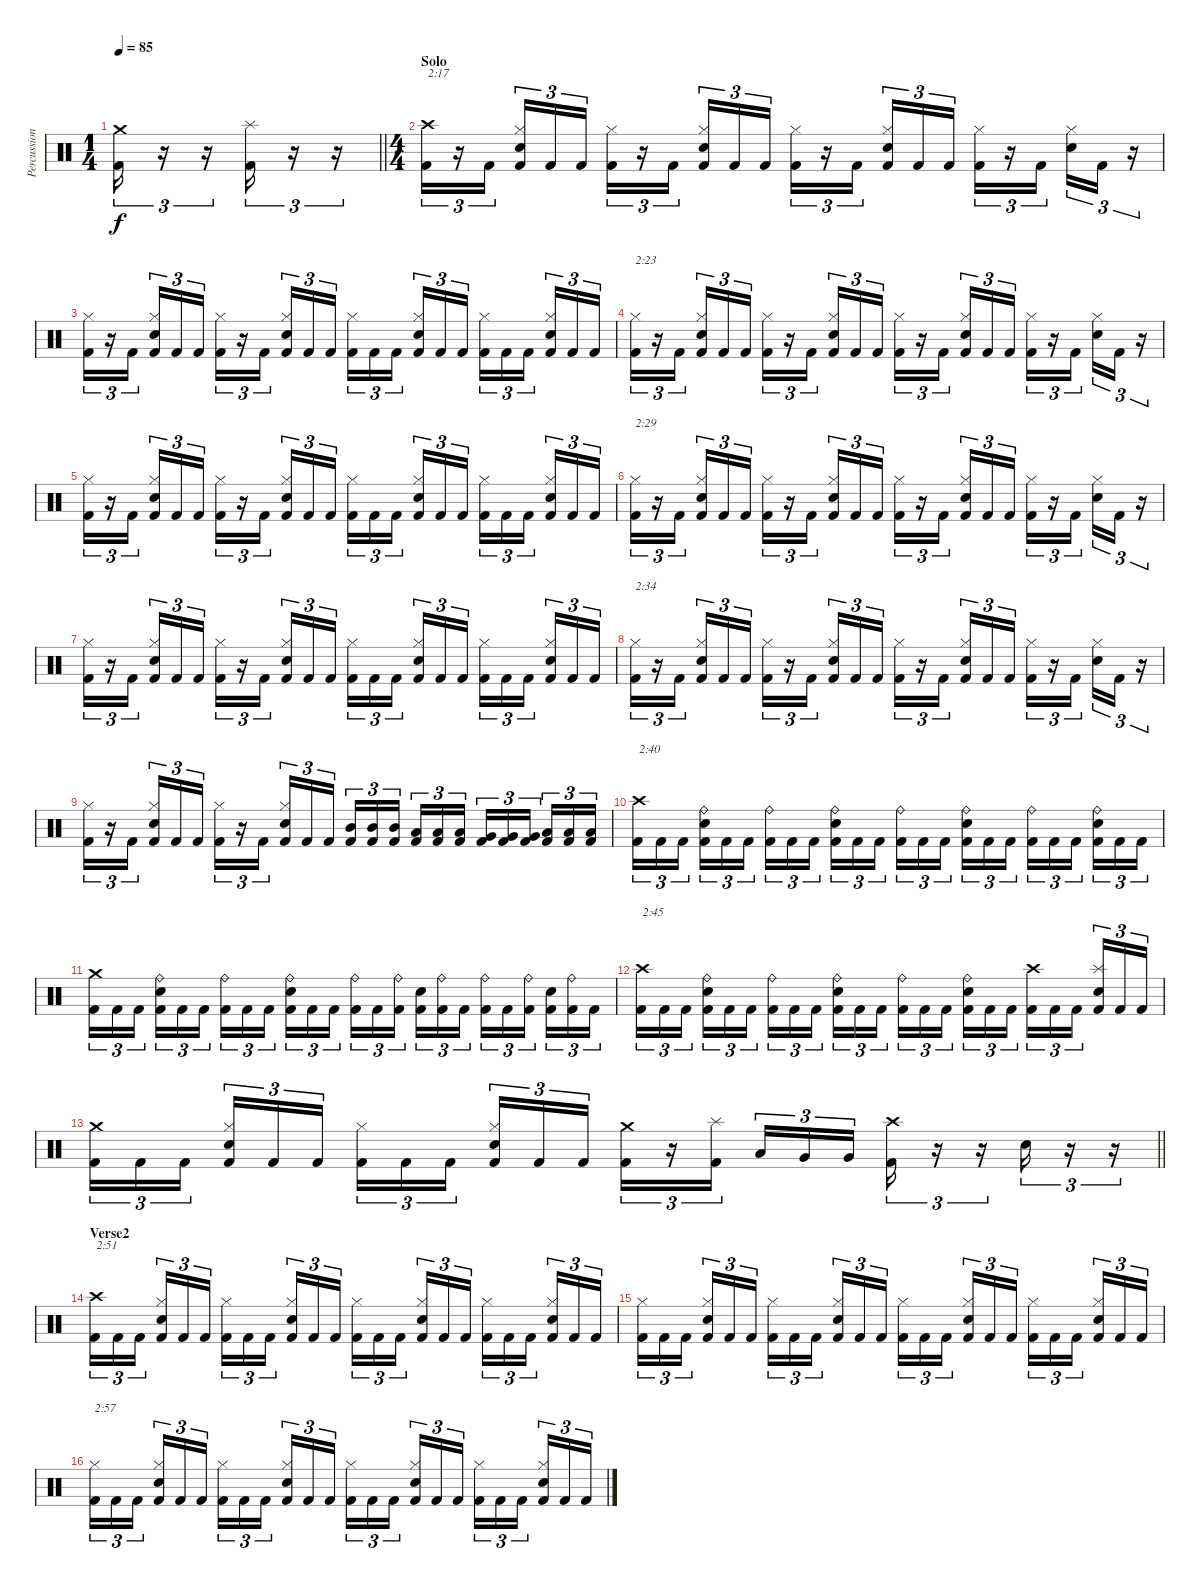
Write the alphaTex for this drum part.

\track ("Percussion" "Percussion") {instrument percussion}
\staff {score}
\articulation defaults
\ts (1 4)
\tempo 85
\clef neutral
\barLineRight lightlight
\ks c
("Crash medium (hit)" "Kick (hit) 2").16{tu (3 2) dy f} r.16{tu (3 2)} r.16{tu (3 2)} ("Splash (hit)" "Kick (hit) 2").16{tu (3 2)} r.16{tu (3 2)} r.16{tu (3 2)} |
\ts (4 4)
\section ("" "Solo")
("Crash high (hit)" "Kick (hit) 2").16{tu (3 2) txt "2:17"} r.16{tu (3 2)} "Kick (hit) 2".16{tu (3 2)} ("Hi-Hat (closed)" "Electric Snare (hit)" "Kick (hit) 2").16{tu (3 2)} "Kick (hit) 2".16{tu (3 2)} "Kick (hit) 2".16{tu (3 2)} ("Hi-Hat (closed)" "Kick (hit) 2").16{tu (3 2)} r.16{tu (3 2)} "Kick (hit) 2".16{tu (3 2)} ("Hi-Hat (closed)" "Electric Snare (hit)" "Kick (hit) 2").16{tu (3 2)} "Kick (hit) 2".16{tu (3 2)} "Kick (hit) 2".16{tu (3 2)} ("Hi-Hat (closed)" "Kick (hit) 2").16{tu (3 2)} r.16{tu (3 2)} "Kick (hit) 2".16{tu (3 2)} ("Hi-Hat (closed)" "Electric Snare (hit)" "Kick (hit) 2").16{tu (3 2)} "Kick (hit) 2".16{tu (3 2)} "Kick (hit) 2".16{tu (3 2)} ("Hi-Hat (closed)" "Kick (hit) 2").16{tu (3 2)} r.16{tu (3 2)} "Kick (hit) 2".16{tu (3 2)} ("Hi-Hat (closed)" "Electric Snare (hit)").16{tu (3 2)} "Kick (hit) 2".16{tu (3 2)} r.16{tu (3 2)} |
("Hi-Hat (closed)" "Kick (hit) 2").16{tu (3 2)} r.16{tu (3 2)} "Kick (hit) 2".16{tu (3 2)} ("Hi-Hat (closed)" "Electric Snare (hit)" "Kick (hit) 2").16{tu (3 2)} "Kick (hit) 2".16{tu (3 2)} "Kick (hit) 2".16{tu (3 2)} ("Hi-Hat (closed)" "Kick (hit) 2").16{tu (3 2)} r.16{tu (3 2)} "Kick (hit) 2".16{tu (3 2)} ("Hi-Hat (closed)" "Electric Snare (hit)" "Kick (hit) 2").16{tu (3 2)} "Kick (hit) 2".16{tu (3 2)} "Kick (hit) 2".16{tu (3 2)} ("Hi-Hat (closed)" "Kick (hit) 2").16{tu (3 2)} "Kick (hit) 2".16{tu (3 2)} "Kick (hit) 2".16{tu (3 2)} ("Hi-Hat (closed)" "Electric Snare (hit)" "Kick (hit) 2").16{tu (3 2)} "Kick (hit) 2".16{tu (3 2)} "Kick (hit) 2".16{tu (3 2)} ("Hi-Hat (closed)" "Kick (hit) 2").16{tu (3 2)} "Kick (hit) 2".16{tu (3 2)} "Kick (hit) 2".16{tu (3 2)} ("Hi-Hat (closed)" "Electric Snare (hit)" "Kick (hit) 2").16{tu (3 2)} "Kick (hit) 2".16{tu (3 2)} "Kick (hit) 2".16{tu (3 2)} |
("Hi-Hat (closed)" "Kick (hit) 2").16{tu (3 2) txt "2:23"} r.16{tu (3 2)} "Kick (hit) 2".16{tu (3 2)} ("Hi-Hat (closed)" "Electric Snare (hit)" "Kick (hit) 2").16{tu (3 2)} "Kick (hit) 2".16{tu (3 2)} "Kick (hit) 2".16{tu (3 2)} ("Hi-Hat (closed)" "Kick (hit) 2").16{tu (3 2)} r.16{tu (3 2)} "Kick (hit) 2".16{tu (3 2)} ("Hi-Hat (closed)" "Electric Snare (hit)" "Kick (hit) 2").16{tu (3 2)} "Kick (hit) 2".16{tu (3 2)} "Kick (hit) 2".16{tu (3 2)} ("Hi-Hat (closed)" "Kick (hit) 2").16{tu (3 2)} r.16{tu (3 2)} "Kick (hit) 2".16{tu (3 2)} ("Hi-Hat (closed)" "Electric Snare (hit)" "Kick (hit) 2").16{tu (3 2)} "Kick (hit) 2".16{tu (3 2)} "Kick (hit) 2".16{tu (3 2)} ("Hi-Hat (closed)" "Kick (hit) 2").16{tu (3 2)} r.16{tu (3 2)} "Kick (hit) 2".16{tu (3 2)} ("Hi-Hat (closed)" "Electric Snare (hit)").16{tu (3 2)} "Kick (hit) 2".16{tu (3 2)} r.16{tu (3 2)} |
("Hi-Hat (closed)" "Kick (hit) 2").16{tu (3 2)} r.16{tu (3 2)} "Kick (hit) 2".16{tu (3 2)} ("Hi-Hat (closed)" "Electric Snare (hit)" "Kick (hit) 2").16{tu (3 2)} "Kick (hit) 2".16{tu (3 2)} "Kick (hit) 2".16{tu (3 2)} ("Hi-Hat (closed)" "Kick (hit) 2").16{tu (3 2)} r.16{tu (3 2)} "Kick (hit) 2".16{tu (3 2)} ("Hi-Hat (closed)" "Electric Snare (hit)" "Kick (hit) 2").16{tu (3 2)} "Kick (hit) 2".16{tu (3 2)} "Kick (hit) 2".16{tu (3 2)} ("Hi-Hat (closed)" "Kick (hit) 2").16{tu (3 2)} "Kick (hit) 2".16{tu (3 2)} "Kick (hit) 2".16{tu (3 2)} ("Hi-Hat (closed)" "Electric Snare (hit)" "Kick (hit) 2").16{tu (3 2)} "Kick (hit) 2".16{tu (3 2)} "Kick (hit) 2".16{tu (3 2)} ("Hi-Hat (closed)" "Kick (hit) 2").16{tu (3 2)} "Kick (hit) 2".16{tu (3 2)} "Kick (hit) 2".16{tu (3 2)} ("Hi-Hat (closed)" "Electric Snare (hit)" "Kick (hit) 2").16{tu (3 2)} "Kick (hit) 2".16{tu (3 2)} "Kick (hit) 2".16{tu (3 2)} |
("Hi-Hat (closed)" "Kick (hit) 2").16{tu (3 2) txt "2:29"} r.16{tu (3 2)} "Kick (hit) 2".16{tu (3 2)} ("Hi-Hat (closed)" "Electric Snare (hit)" "Kick (hit) 2").16{tu (3 2)} "Kick (hit) 2".16{tu (3 2)} "Kick (hit) 2".16{tu (3 2)} ("Hi-Hat (closed)" "Kick (hit) 2").16{tu (3 2)} r.16{tu (3 2)} "Kick (hit) 2".16{tu (3 2)} ("Hi-Hat (closed)" "Electric Snare (hit)" "Kick (hit) 2").16{tu (3 2)} "Kick (hit) 2".16{tu (3 2)} "Kick (hit) 2".16{tu (3 2)} ("Hi-Hat (closed)" "Kick (hit) 2").16{tu (3 2)} r.16{tu (3 2)} "Kick (hit) 2".16{tu (3 2)} ("Hi-Hat (closed)" "Electric Snare (hit)" "Kick (hit) 2").16{tu (3 2)} "Kick (hit) 2".16{tu (3 2)} "Kick (hit) 2".16{tu (3 2)} ("Hi-Hat (closed)" "Kick (hit) 2").16{tu (3 2)} r.16{tu (3 2)} "Kick (hit) 2".16{tu (3 2)} ("Hi-Hat (closed)" "Electric Snare (hit)").16{tu (3 2)} "Kick (hit) 2".16{tu (3 2)} r.16{tu (3 2)} |
("Hi-Hat (closed)" "Kick (hit) 2").16{tu (3 2)} r.16{tu (3 2)} "Kick (hit) 2".16{tu (3 2)} ("Hi-Hat (closed)" "Electric Snare (hit)" "Kick (hit) 2").16{tu (3 2)} "Kick (hit) 2".16{tu (3 2)} "Kick (hit) 2".16{tu (3 2)} ("Hi-Hat (closed)" "Kick (hit) 2").16{tu (3 2)} r.16{tu (3 2)} "Kick (hit) 2".16{tu (3 2)} ("Hi-Hat (closed)" "Electric Snare (hit)" "Kick (hit) 2").16{tu (3 2)} "Kick (hit) 2".16{tu (3 2)} "Kick (hit) 2".16{tu (3 2)} ("Hi-Hat (closed)" "Kick (hit) 2").16{tu (3 2)} "Kick (hit) 2".16{tu (3 2)} "Kick (hit) 2".16{tu (3 2)} ("Hi-Hat (closed)" "Electric Snare (hit)" "Kick (hit) 2").16{tu (3 2)} "Kick (hit) 2".16{tu (3 2)} "Kick (hit) 2".16{tu (3 2)} ("Hi-Hat (closed)" "Kick (hit) 2").16{tu (3 2)} "Kick (hit) 2".16{tu (3 2)} "Kick (hit) 2".16{tu (3 2)} ("Hi-Hat (closed)" "Electric Snare (hit)" "Kick (hit) 2").16{tu (3 2)} "Kick (hit) 2".16{tu (3 2)} "Kick (hit) 2".16{tu (3 2)} |
("Hi-Hat (closed)" "Kick (hit) 2").16{tu (3 2) txt "2:34"} r.16{tu (3 2)} "Kick (hit) 2".16{tu (3 2)} ("Hi-Hat (closed)" "Electric Snare (hit)" "Kick (hit) 2").16{tu (3 2)} "Kick (hit) 2".16{tu (3 2)} "Kick (hit) 2".16{tu (3 2)} ("Hi-Hat (closed)" "Kick (hit) 2").16{tu (3 2)} r.16{tu (3 2)} "Kick (hit) 2".16{tu (3 2)} ("Hi-Hat (closed)" "Electric Snare (hit)" "Kick (hit) 2").16{tu (3 2)} "Kick (hit) 2".16{tu (3 2)} "Kick (hit) 2".16{tu (3 2)} ("Hi-Hat (closed)" "Kick (hit) 2").16{tu (3 2)} r.16{tu (3 2)} "Kick (hit) 2".16{tu (3 2)} ("Hi-Hat (closed)" "Electric Snare (hit)" "Kick (hit) 2").16{tu (3 2)} "Kick (hit) 2".16{tu (3 2)} "Kick (hit) 2".16{tu (3 2)} ("Hi-Hat (closed)" "Kick (hit) 2").16{tu (3 2)} r.16{tu (3 2)} "Kick (hit) 2".16{tu (3 2)} ("Hi-Hat (closed)" "Electric Snare (hit)").16{tu (3 2)} "Kick (hit) 2".16{tu (3 2)} r.16{tu (3 2)} |
("Hi-Hat (closed)" "Kick (hit) 2").16{tu (3 2)} r.16{tu (3 2)} "Kick (hit) 2".16{tu (3 2)} ("Hi-Hat (closed)" "Electric Snare (hit)" "Kick (hit) 2").16{tu (3 2)} "Kick (hit) 2".16{tu (3 2)} "Kick (hit) 2".16{tu (3 2)} ("Hi-Hat (closed)" "Kick (hit) 2").16{tu (3 2)} r.16{tu (3 2)} "Kick (hit) 2".16{tu (3 2)} ("Hi-Hat (closed)" "Electric Snare (hit)" "Kick (hit) 2").16{tu (3 2)} "Kick (hit) 2".16{tu (3 2)} "Kick (hit) 2".16{tu (3 2)} ("Mid Tom (hit)" "Kick (hit) 2").16{tu (3 2)} ("Mid Tom (hit)" "Kick (hit) 2").16{tu (3 2)} ("Mid Tom (hit)" "Kick (hit) 2").16{tu (3 2)} ("Low Tom (hit)" "Kick (hit) 2").16{tu (3 2)} ("Low Tom (hit)" "Kick (hit) 2").16{tu (3 2)} ("Low Tom (hit)" "Kick (hit) 2").16{tu (3 2)} ("Very Low Tom (hit)" "Kick (hit) 2").16{tu (3 2)} ("Very Low Tom (hit)" "Kick (hit) 2").16{tu (3 2)} ("Very Low Tom (hit)" "Kick (hit) 2").16{tu (3 2)} ("Low Floor Tom (hit)" "Kick (hit) 2").16{tu (3 2)} ("Low Floor Tom (hit)" "Kick (hit) 2").16{tu (3 2)} ("Low Floor Tom (hit)" "Kick (hit) 2").16{tu (3 2)} |
("Crash high (hit)" "Kick (hit) 2").16{tu (3 2) txt "2:40"} "Kick (hit) 2".16{tu (3 2)} "Kick (hit) 2".16{tu (3 2)} ("Ride (bell)" "Electric Snare (hit)" "Kick (hit) 2").16{tu (3 2)} "Kick (hit) 2".16{tu (3 2)} "Kick (hit) 2".16{tu (3 2)} ("Ride (bell)" "Kick (hit) 2").16{tu (3 2)} "Kick (hit) 2".16{tu (3 2)} "Kick (hit) 2".16{tu (3 2)} ("Ride (bell)" "Electric Snare (hit)" "Kick (hit) 2").16{tu (3 2)} "Kick (hit) 2".16{tu (3 2)} "Kick (hit) 2".16{tu (3 2)} ("Ride (bell)" "Kick (hit) 2").16{tu (3 2)} "Kick (hit) 2".16{tu (3 2)} "Kick (hit) 2".16{tu (3 2)} ("Ride (bell)" "Electric Snare (hit)" "Kick (hit) 2").16{tu (3 2)} "Kick (hit) 2".16{tu (3 2)} "Kick (hit) 2".16{tu (3 2)} ("Ride (bell)" "Kick (hit) 2").16{tu (3 2)} "Kick (hit) 2".16{tu (3 2)} "Kick (hit) 2".16{tu (3 2)} ("Ride (bell)" "Electric Snare (hit)" "Kick (hit) 2").16{tu (3 2)} "Kick (hit) 2".16{tu (3 2)} "Kick (hit) 2".16{tu (3 2)} |
("Crash medium (hit)" "Kick (hit) 2").16{tu (3 2)} "Kick (hit) 2".16{tu (3 2)} "Kick (hit) 2".16{tu (3 2)} ("Ride (bell)" "Electric Snare (hit)" "Kick (hit) 2").16{tu (3 2)} "Kick (hit) 2".16{tu (3 2)} "Kick (hit) 2".16{tu (3 2)} ("Ride (bell)" "Kick (hit) 2").16{tu (3 2)} "Kick (hit) 2".16{tu (3 2)} "Kick (hit) 2".16{tu (3 2)} ("Ride (bell)" "Electric Snare (hit)" "Kick (hit) 2").16{tu (3 2)} "Kick (hit) 2".16{tu (3 2)} "Kick (hit) 2".16{tu (3 2)} ("Ride (bell)" "Kick (hit) 2").16{tu (3 2)} "Kick (hit) 2".16{tu (3 2)} ("Ride (bell)" "Kick (hit) 2").16{tu (3 2)} ("Electric Snare (hit)" "Kick (hit) 2").16{tu (3 2)} ("Ride (bell)" "Kick (hit) 2").16{tu (3 2)} "Kick (hit) 2".16{tu (3 2)} ("Ride (bell)" "Kick (hit) 2").16{tu (3 2)} "Kick (hit) 2".16{tu (3 2)} ("Ride (bell)" "Kick (hit) 2").16{tu (3 2)} ("Electric Snare (hit)" "Kick (hit) 2").16{tu (3 2)} ("Ride (bell)" "Kick (hit) 2").16{tu (3 2)} "Kick (hit) 2".16{tu (3 2)} |
("Crash high (hit)" "Kick (hit) 2").16{tu (3 2) txt "2:45"} "Kick (hit) 2".16{tu (3 2)} "Kick (hit) 2".16{tu (3 2)} ("Ride (bell)" "Electric Snare (hit)" "Kick (hit) 2").16{tu (3 2)} "Kick (hit) 2".16{tu (3 2)} "Kick (hit) 2".16{tu (3 2)} ("Ride (bell)" "Kick (hit) 2").16{tu (3 2)} "Kick (hit) 2".16{tu (3 2)} "Kick (hit) 2".16{tu (3 2)} ("Ride (bell)" "Electric Snare (hit)" "Kick (hit) 2").16{tu (3 2)} "Kick (hit) 2".16{tu (3 2)} "Kick (hit) 2".16{tu (3 2)} ("Ride (bell)" "Kick (hit) 2").16{tu (3 2)} "Kick (hit) 2".16{tu (3 2)} "Kick (hit) 2".16{tu (3 2)} ("Ride (bell)" "Electric Snare (hit)" "Kick (hit) 2").16{tu (3 2)} "Kick (hit) 2".16{tu (3 2)} "Kick (hit) 2".16{tu (3 2)} ("Crash high (hit)" "Kick (hit) 2").16{tu (3 2)} "Kick (hit) 2".16{tu (3 2)} "Kick (hit) 2".16{tu (3 2)} ("Splash (hit)" "Electric Snare (hit)" "Kick (hit) 2").16{tu (3 2)} "Kick (hit) 2".16{tu (3 2)} "Kick (hit) 2".16{tu (3 2)} |
\barLineRight lightlight
("Crash medium (hit)" "Kick (hit) 2").16{tu (3 2)} "Kick (hit) 2".16{tu (3 2)} "Kick (hit) 2".16{tu (3 2)} ("Hi-Hat (closed)" "Electric Snare (hit)" "Kick (hit) 2").16{tu (3 2)} "Kick (hit) 2".16{tu (3 2)} "Kick (hit) 2".16{tu (3 2)} ("Hi-Hat (closed)" "Kick (hit) 2").16{tu (3 2)} "Kick (hit) 2".16{tu (3 2)} "Kick (hit) 2".16{tu (3 2)} ("Hi-Hat (closed)" "Electric Snare (hit)" "Kick (hit) 2").16{tu (3 2)} "Kick (hit) 2".16{tu (3 2)} "Kick (hit) 2".16{tu (3 2)} ("Crash medium (hit)" "Kick (hit) 2").16{tu (3 2)} r.16{tu (3 2)} ("Splash (hit)" "Kick (hit) 2").16{tu (3 2)} "Low Tom (hit)".16{tu (3 2)} "Very Low Tom (hit)".16{tu (3 2)} "Very Low Tom (hit)".16{tu (3 2)} ("Crash high (hit)" "Kick (hit) 2").16{tu (3 2)} r.16{tu (3 2)} r.16{tu (3 2)} "Electric Snare (hit)".16{tu (3 2)} r.16{tu (3 2)} r.16{tu (3 2)} |
\section ("" "Verse2")
("Crash high (hit)" "Kick (hit) 2").16{tu (3 2) txt "2:51"} "Kick (hit) 2".16{tu (3 2)} "Kick (hit) 2".16{tu (3 2)} ("Hi-Hat (closed)" "Electric Snare (hit)" "Kick (hit) 2").16{tu (3 2)} "Kick (hit) 2".16{tu (3 2)} "Kick (hit) 2".16{tu (3 2)} ("Hi-Hat (closed)" "Kick (hit) 2").16{tu (3 2)} "Kick (hit) 2".16{tu (3 2)} "Kick (hit) 2".16{tu (3 2)} ("Hi-Hat (closed)" "Electric Snare (hit)" "Kick (hit) 2").16{tu (3 2)} "Kick (hit) 2".16{tu (3 2)} "Kick (hit) 2".16{tu (3 2)} ("Hi-Hat (closed)" "Kick (hit) 2").16{tu (3 2)} "Kick (hit) 2".16{tu (3 2)} "Kick (hit) 2".16{tu (3 2)} ("Hi-Hat (closed)" "Electric Snare (hit)" "Kick (hit) 2").16{tu (3 2)} "Kick (hit) 2".16{tu (3 2)} "Kick (hit) 2".16{tu (3 2)} ("Hi-Hat (closed)" "Kick (hit) 2").16{tu (3 2)} "Kick (hit) 2".16{tu (3 2)} "Kick (hit) 2".16{tu (3 2)} ("Hi-Hat (closed)" "Electric Snare (hit)" "Kick (hit) 2").16{tu (3 2)} "Kick (hit) 2".16{tu (3 2)} "Kick (hit) 2".16{tu (3 2)} |
("Hi-Hat (closed)" "Kick (hit) 2").16{tu (3 2)} "Kick (hit) 2".16{tu (3 2)} "Kick (hit) 2".16{tu (3 2)} ("Hi-Hat (closed)" "Electric Snare (hit)" "Kick (hit) 2").16{tu (3 2)} "Kick (hit) 2".16{tu (3 2)} "Kick (hit) 2".16{tu (3 2)} ("Hi-Hat (closed)" "Kick (hit) 2").16{tu (3 2)} "Kick (hit) 2".16{tu (3 2)} "Kick (hit) 2".16{tu (3 2)} ("Hi-Hat (closed)" "Electric Snare (hit)" "Kick (hit) 2").16{tu (3 2)} "Kick (hit) 2".16{tu (3 2)} "Kick (hit) 2".16{tu (3 2)} ("Hi-Hat (closed)" "Kick (hit) 2").16{tu (3 2)} "Kick (hit) 2".16{tu (3 2)} "Kick (hit) 2".16{tu (3 2)} ("Hi-Hat (closed)" "Electric Snare (hit)" "Kick (hit) 2").16{tu (3 2)} "Kick (hit) 2".16{tu (3 2)} "Kick (hit) 2".16{tu (3 2)} ("Hi-Hat (closed)" "Kick (hit) 2").16{tu (3 2)} "Kick (hit) 2".16{tu (3 2)} "Kick (hit) 2".16{tu (3 2)} ("Hi-Hat (closed)" "Electric Snare (hit)" "Kick (hit) 2").16{tu (3 2)} "Kick (hit) 2".16{tu (3 2)} "Kick (hit) 2".16{tu (3 2)} |
("Hi-Hat (closed)" "Kick (hit) 2").16{tu (3 2) txt "2:57"} "Kick (hit) 2".16{tu (3 2)} "Kick (hit) 2".16{tu (3 2)} ("Hi-Hat (closed)" "Electric Snare (hit)" "Kick (hit) 2").16{tu (3 2)} "Kick (hit) 2".16{tu (3 2)} "Kick (hit) 2".16{tu (3 2)} ("Hi-Hat (closed)" "Kick (hit) 2").16{tu (3 2)} "Kick (hit) 2".16{tu (3 2)} "Kick (hit) 2".16{tu (3 2)} ("Hi-Hat (closed)" "Electric Snare (hit)" "Kick (hit) 2").16{tu (3 2)} "Kick (hit) 2".16{tu (3 2)} "Kick (hit) 2".16{tu (3 2)} ("Hi-Hat (closed)" "Kick (hit) 2").16{tu (3 2)} "Kick (hit) 2".16{tu (3 2)} "Kick (hit) 2".16{tu (3 2)} ("Hi-Hat (closed)" "Electric Snare (hit)" "Kick (hit) 2").16{tu (3 2)} "Kick (hit) 2".16{tu (3 2)} "Kick (hit) 2".16{tu (3 2)} ("Hi-Hat (closed)" "Kick (hit) 2").16{tu (3 2)} "Kick (hit) 2".16{tu (3 2)} "Kick (hit) 2".16{tu (3 2)} ("Hi-Hat (closed)" "Electric Snare (hit)" "Kick (hit) 2").16{tu (3 2)} "Kick (hit) 2".16{tu (3 2)} "Kick (hit) 2".16{tu (3 2)}
